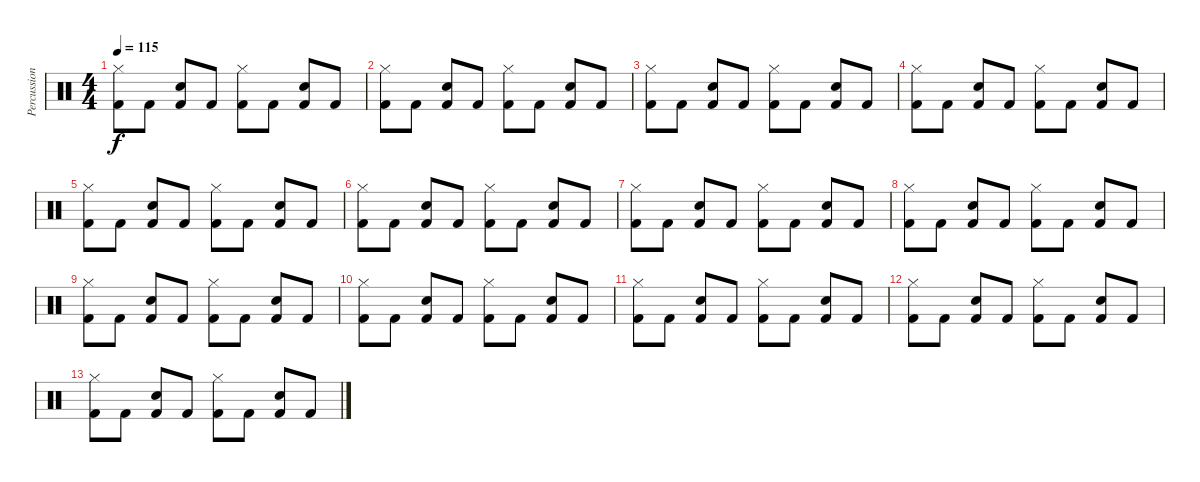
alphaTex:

\track ("Percussion" "Percussion") {instrument percussion}
\staff {score}
\articulation defaults
\ts (4 4)
\tempo 115
\clef neutral
\ks c
("Kick (hit) 2" "Hi-Hat (closed)").8{dy f} "Kick (hit) 2".8 ("Kick (hit) 2" "Snare (hit) 2").8 "Kick (hit) 2".8 ("Kick (hit) 2" "Hi-Hat (closed)").8 "Kick (hit) 2".8 ("Kick (hit) 2" "Snare (hit) 2").8 "Kick (hit) 2".8 |
("Kick (hit) 2" "Hi-Hat (closed)").8 "Kick (hit) 2".8 ("Kick (hit) 2" "Snare (hit) 2").8 "Kick (hit) 2".8 ("Kick (hit) 2" "Hi-Hat (closed)").8 "Kick (hit) 2".8 ("Kick (hit) 2" "Snare (hit) 2").8 "Kick (hit) 2".8 |
("Kick (hit) 2" "Hi-Hat (closed)").8 "Kick (hit) 2".8 ("Kick (hit) 2" "Snare (hit) 2").8 "Kick (hit) 2".8 ("Kick (hit) 2" "Hi-Hat (closed)").8 "Kick (hit) 2".8 ("Kick (hit) 2" "Snare (hit) 2").8 "Kick (hit) 2".8 |
("Kick (hit) 2" "Hi-Hat (closed)").8 "Kick (hit) 2".8 ("Kick (hit) 2" "Snare (hit) 2").8 "Kick (hit) 2".8 ("Kick (hit) 2" "Hi-Hat (closed)").8 "Kick (hit) 2".8 ("Kick (hit) 2" "Snare (hit) 2").8 "Kick (hit) 2".8 |
("Kick (hit) 2" "Hi-Hat (closed)").8 "Kick (hit) 2".8 ("Kick (hit) 2" "Snare (hit) 2").8 "Kick (hit) 2".8 ("Kick (hit) 2" "Hi-Hat (closed)").8 "Kick (hit) 2".8 ("Kick (hit) 2" "Snare (hit) 2").8 "Kick (hit) 2".8 |
("Kick (hit) 2" "Hi-Hat (closed)").8 "Kick (hit) 2".8 ("Kick (hit) 2" "Snare (hit) 2").8 "Kick (hit) 2".8 ("Kick (hit) 2" "Hi-Hat (closed)").8 "Kick (hit) 2".8 ("Kick (hit) 2" "Snare (hit) 2").8 "Kick (hit) 2".8 |
("Kick (hit) 2" "Hi-Hat (closed)").8 "Kick (hit) 2".8 ("Kick (hit) 2" "Snare (hit) 2").8 "Kick (hit) 2".8 ("Kick (hit) 2" "Hi-Hat (closed)").8 "Kick (hit) 2".8 ("Kick (hit) 2" "Snare (hit) 2").8 "Kick (hit) 2".8 |
("Kick (hit) 2" "Hi-Hat (closed)").8 "Kick (hit) 2".8 ("Kick (hit) 2" "Snare (hit) 2").8 "Kick (hit) 2".8 ("Kick (hit) 2" "Hi-Hat (closed)").8 "Kick (hit) 2".8 ("Kick (hit) 2" "Snare (hit) 2").8 "Kick (hit) 2".8 |
("Kick (hit) 2" "Hi-Hat (closed)").8 "Kick (hit) 2".8 ("Kick (hit) 2" "Snare (hit) 2").8 "Kick (hit) 2".8 ("Kick (hit) 2" "Hi-Hat (closed)").8 "Kick (hit) 2".8 ("Kick (hit) 2" "Snare (hit) 2").8 "Kick (hit) 2".8 |
("Kick (hit) 2" "Hi-Hat (closed)").8 "Kick (hit) 2".8 ("Kick (hit) 2" "Snare (hit) 2").8 "Kick (hit) 2".8 ("Kick (hit) 2" "Hi-Hat (closed)").8 "Kick (hit) 2".8 ("Kick (hit) 2" "Snare (hit) 2").8 "Kick (hit) 2".8 |
("Kick (hit) 2" "Hi-Hat (closed)").8 "Kick (hit) 2".8 ("Kick (hit) 2" "Snare (hit) 2").8 "Kick (hit) 2".8 ("Kick (hit) 2" "Hi-Hat (closed)").8 "Kick (hit) 2".8 ("Kick (hit) 2" "Snare (hit) 2").8 "Kick (hit) 2".8 |
("Kick (hit) 2" "Hi-Hat (closed)").8 "Kick (hit) 2".8 ("Kick (hit) 2" "Snare (hit) 2").8 "Kick (hit) 2".8 ("Kick (hit) 2" "Hi-Hat (closed)").8 "Kick (hit) 2".8 ("Kick (hit) 2" "Snare (hit) 2").8 "Kick (hit) 2".8 |
("Kick (hit) 2" "Hi-Hat (closed)").8 "Kick (hit) 2".8 ("Kick (hit) 2" "Snare (hit) 2").8 "Kick (hit) 2".8 ("Kick (hit) 2" "Hi-Hat (closed)").8 "Kick (hit) 2".8 ("Kick (hit) 2" "Snare (hit) 2").8 "Kick (hit) 2".8
